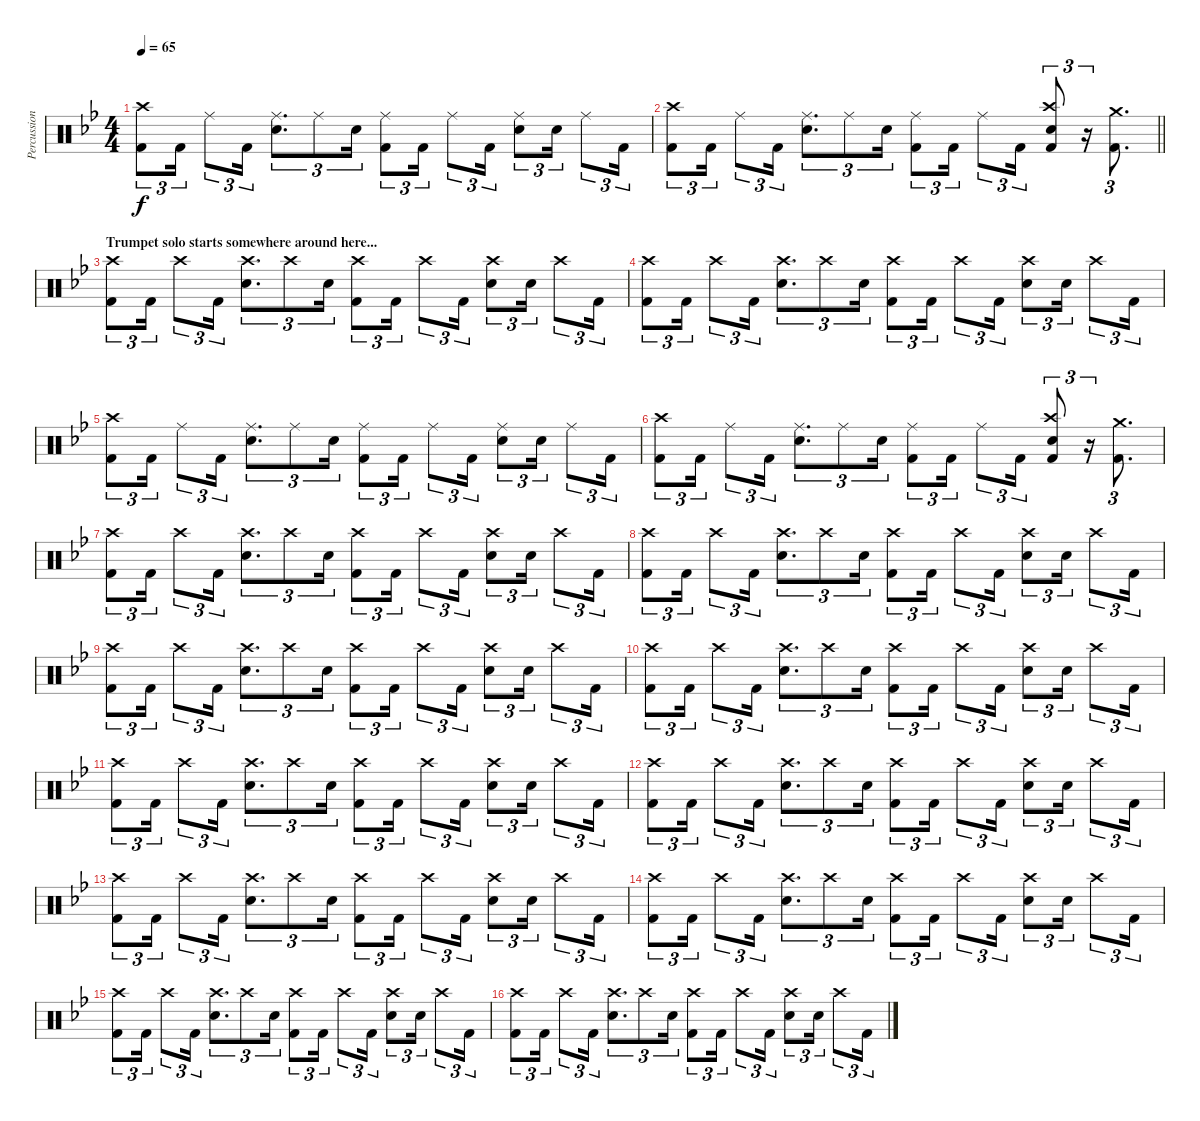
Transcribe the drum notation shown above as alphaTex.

\track ("Percussion" "Percussion") {instrument percussion}
\staff {score}
\articulation defaults
\ts (4 4)
\tempo 65
\clef neutral
\ks bb
("Kick (hit) 2" "Crash high (hit)").8{tu (3 2) dy f} "Kick (hit) 2".16{tu (3 2)} "Ride (middle)".8{tu (3 2)} "Kick (hit) 2".16{tu (3 2)} ("Snare (hit) 2" "Ride (middle)").8{d tu (3 2)} "Ride (middle)".8{tu (3 2)} "Snare (hit) 2".16{tu (3 2)} ("Kick (hit) 2" "Ride (middle)").8{tu (3 2)} "Kick (hit) 2".16{tu (3 2)} "Ride (middle)".8{tu (3 2)} "Kick (hit) 2".16{tu (3 2)} ("Ride (middle)" "Snare (hit) 2").8{tu (3 2)} "Snare (hit) 2".16{tu (3 2)} "Ride (middle)".8{tu (3 2)} "Kick (hit) 2".16{tu (3 2)} |
\barLineRight lightlight
("Kick (hit) 2" "Crash high (hit)").8{tu (3 2)} "Kick (hit) 2".16{tu (3 2)} "Ride (middle)".8{tu (3 2)} "Kick (hit) 2".16{tu (3 2)} ("Snare (hit) 2" "Ride (middle)").8{d tu (3 2)} "Ride (middle)".8{tu (3 2)} "Snare (hit) 2".16{tu (3 2)} ("Kick (hit) 2" "Ride (middle)").8{tu (3 2)} "Kick (hit) 2".16{tu (3 2)} "Ride (middle)".8{tu (3 2)} "Kick (hit) 2".16{tu (3 2)} ("Crash high (hit)" "Snare (hit) 2" "Kick (hit) 2").8{tu (3 2)} r.16{tu (3 2)} ("Crash medium (hit)" "Kick (hit) 2").8{d tu (3 2)} |
\section ("" "Trumpet solo starts somewhere around here...")
("Kick (hit) 2" "Crash high (hit)").8{tu (3 2)} "Kick (hit) 2".16{tu (3 2)} "Crash high (hit)".8{tu (3 2)} "Kick (hit) 2".16{tu (3 2)} ("Snare (hit) 2" "Crash high (hit)").8{d tu (3 2)} "Crash high (hit)".8{tu (3 2)} "Snare (hit) 2".16{tu (3 2)} ("Kick (hit) 2" "Crash high (hit)").8{tu (3 2)} "Kick (hit) 2".16{tu (3 2)} "Crash high (hit)".8{tu (3 2)} "Kick (hit) 2".16{tu (3 2)} ("Crash high (hit)" "Snare (hit) 2").8{tu (3 2)} "Snare (hit) 2".16{tu (3 2)} "Crash high (hit)".8{tu (3 2)} "Kick (hit) 2".16{tu (3 2)} |
("Kick (hit) 2" "Crash high (hit)").8{tu (3 2)} "Kick (hit) 2".16{tu (3 2)} "Crash high (hit)".8{tu (3 2)} "Kick (hit) 2".16{tu (3 2)} ("Snare (hit) 2" "Crash high (hit)").8{d tu (3 2)} "Crash high (hit)".8{tu (3 2)} "Snare (hit) 2".16{tu (3 2)} ("Kick (hit) 2" "Crash high (hit)").8{tu (3 2)} "Kick (hit) 2".16{tu (3 2)} "Crash high (hit)".8{tu (3 2)} "Kick (hit) 2".16{tu (3 2)} ("Crash high (hit)" "Snare (hit) 2").8{tu (3 2)} "Snare (hit) 2".16{tu (3 2)} "Crash high (hit)".8{tu (3 2)} "Kick (hit) 2".16{tu (3 2)} |
("Kick (hit) 2" "Crash high (hit)").8{tu (3 2)} "Kick (hit) 2".16{tu (3 2)} "Ride (middle)".8{tu (3 2)} "Kick (hit) 2".16{tu (3 2)} ("Snare (hit) 2" "Ride (middle)").8{d tu (3 2)} "Ride (middle)".8{tu (3 2)} "Snare (hit) 2".16{tu (3 2)} ("Kick (hit) 2" "Ride (middle)").8{tu (3 2)} "Kick (hit) 2".16{tu (3 2)} "Ride (middle)".8{tu (3 2)} "Kick (hit) 2".16{tu (3 2)} ("Ride (middle)" "Snare (hit) 2").8{tu (3 2)} "Snare (hit) 2".16{tu (3 2)} "Ride (middle)".8{tu (3 2)} "Kick (hit) 2".16{tu (3 2)} |
("Kick (hit) 2" "Crash high (hit)").8{tu (3 2)} "Kick (hit) 2".16{tu (3 2)} "Ride (middle)".8{tu (3 2)} "Kick (hit) 2".16{tu (3 2)} ("Snare (hit) 2" "Ride (middle)").8{d tu (3 2)} "Ride (middle)".8{tu (3 2)} "Snare (hit) 2".16{tu (3 2)} ("Kick (hit) 2" "Ride (middle)").8{tu (3 2)} "Kick (hit) 2".16{tu (3 2)} "Ride (middle)".8{tu (3 2)} "Kick (hit) 2".16{tu (3 2)} ("Crash high (hit)" "Snare (hit) 2" "Kick (hit) 2").8{tu (3 2)} r.16{tu (3 2)} ("Crash medium (hit)" "Kick (hit) 2").8{d tu (3 2)} |
("Kick (hit) 2" "Crash high (hit)").8{tu (3 2)} "Kick (hit) 2".16{tu (3 2)} "Crash high (hit)".8{tu (3 2)} "Kick (hit) 2".16{tu (3 2)} ("Snare (hit) 2" "Crash high (hit)").8{d tu (3 2)} "Crash high (hit)".8{tu (3 2)} "Snare (hit) 2".16{tu (3 2)} ("Kick (hit) 2" "Crash high (hit)").8{tu (3 2)} "Kick (hit) 2".16{tu (3 2)} "Crash high (hit)".8{tu (3 2)} "Kick (hit) 2".16{tu (3 2)} ("Crash high (hit)" "Snare (hit) 2").8{tu (3 2)} "Snare (hit) 2".16{tu (3 2)} "Crash high (hit)".8{tu (3 2)} "Kick (hit) 2".16{tu (3 2)} |
("Kick (hit) 2" "Crash high (hit)").8{tu (3 2)} "Kick (hit) 2".16{tu (3 2)} "Crash high (hit)".8{tu (3 2)} "Kick (hit) 2".16{tu (3 2)} ("Snare (hit) 2" "Crash high (hit)").8{d tu (3 2)} "Crash high (hit)".8{tu (3 2)} "Snare (hit) 2".16{tu (3 2)} ("Kick (hit) 2" "Crash high (hit)").8{tu (3 2)} "Kick (hit) 2".16{tu (3 2)} "Crash high (hit)".8{tu (3 2)} "Kick (hit) 2".16{tu (3 2)} ("Crash high (hit)" "Snare (hit) 2").8{tu (3 2)} "Snare (hit) 2".16{tu (3 2)} "Crash high (hit)".8{tu (3 2)} "Kick (hit) 2".16{tu (3 2)} |
("Kick (hit) 2" "Crash high (hit)").8{tu (3 2)} "Kick (hit) 2".16{tu (3 2)} "Crash high (hit)".8{tu (3 2)} "Kick (hit) 2".16{tu (3 2)} ("Snare (hit) 2" "Crash high (hit)").8{d tu (3 2)} "Crash high (hit)".8{tu (3 2)} "Snare (hit) 2".16{tu (3 2)} ("Kick (hit) 2" "Crash high (hit)").8{tu (3 2)} "Kick (hit) 2".16{tu (3 2)} "Crash high (hit)".8{tu (3 2)} "Kick (hit) 2".16{tu (3 2)} ("Crash high (hit)" "Snare (hit) 2").8{tu (3 2)} "Snare (hit) 2".16{tu (3 2)} "Crash high (hit)".8{tu (3 2)} "Kick (hit) 2".16{tu (3 2)} |
("Kick (hit) 2" "Crash high (hit)").8{tu (3 2)} "Kick (hit) 2".16{tu (3 2)} "Crash high (hit)".8{tu (3 2)} "Kick (hit) 2".16{tu (3 2)} ("Snare (hit) 2" "Crash high (hit)").8{d tu (3 2)} "Crash high (hit)".8{tu (3 2)} "Snare (hit) 2".16{tu (3 2)} ("Kick (hit) 2" "Crash high (hit)").8{tu (3 2)} "Kick (hit) 2".16{tu (3 2)} "Crash high (hit)".8{tu (3 2)} "Kick (hit) 2".16{tu (3 2)} ("Crash high (hit)" "Snare (hit) 2").8{tu (3 2)} "Snare (hit) 2".16{tu (3 2)} "Crash high (hit)".8{tu (3 2)} "Kick (hit) 2".16{tu (3 2)} |
("Kick (hit) 2" "Crash high (hit)").8{tu (3 2)} "Kick (hit) 2".16{tu (3 2)} "Crash high (hit)".8{tu (3 2)} "Kick (hit) 2".16{tu (3 2)} ("Snare (hit) 2" "Crash high (hit)").8{d tu (3 2)} "Crash high (hit)".8{tu (3 2)} "Snare (hit) 2".16{tu (3 2)} ("Kick (hit) 2" "Crash high (hit)").8{tu (3 2)} "Kick (hit) 2".16{tu (3 2)} "Crash high (hit)".8{tu (3 2)} "Kick (hit) 2".16{tu (3 2)} ("Crash high (hit)" "Snare (hit) 2").8{tu (3 2)} "Snare (hit) 2".16{tu (3 2)} "Crash high (hit)".8{tu (3 2)} "Kick (hit) 2".16{tu (3 2)} |
("Kick (hit) 2" "Crash high (hit)").8{tu (3 2)} "Kick (hit) 2".16{tu (3 2)} "Crash high (hit)".8{tu (3 2)} "Kick (hit) 2".16{tu (3 2)} ("Snare (hit) 2" "Crash high (hit)").8{d tu (3 2)} "Crash high (hit)".8{tu (3 2)} "Snare (hit) 2".16{tu (3 2)} ("Kick (hit) 2" "Crash high (hit)").8{tu (3 2)} "Kick (hit) 2".16{tu (3 2)} "Crash high (hit)".8{tu (3 2)} "Kick (hit) 2".16{tu (3 2)} ("Crash high (hit)" "Snare (hit) 2").8{tu (3 2)} "Snare (hit) 2".16{tu (3 2)} "Crash high (hit)".8{tu (3 2)} "Kick (hit) 2".16{tu (3 2)} |
("Kick (hit) 2" "Crash high (hit)").8{tu (3 2)} "Kick (hit) 2".16{tu (3 2)} "Crash high (hit)".8{tu (3 2)} "Kick (hit) 2".16{tu (3 2)} ("Snare (hit) 2" "Crash high (hit)").8{d tu (3 2)} "Crash high (hit)".8{tu (3 2)} "Snare (hit) 2".16{tu (3 2)} ("Kick (hit) 2" "Crash high (hit)").8{tu (3 2)} "Kick (hit) 2".16{tu (3 2)} "Crash high (hit)".8{tu (3 2)} "Kick (hit) 2".16{tu (3 2)} ("Crash high (hit)" "Snare (hit) 2").8{tu (3 2)} "Snare (hit) 2".16{tu (3 2)} "Crash high (hit)".8{tu (3 2)} "Kick (hit) 2".16{tu (3 2)} |
("Kick (hit) 2" "Crash high (hit)").8{tu (3 2)} "Kick (hit) 2".16{tu (3 2)} "Crash high (hit)".8{tu (3 2)} "Kick (hit) 2".16{tu (3 2)} ("Snare (hit) 2" "Crash high (hit)").8{d tu (3 2)} "Crash high (hit)".8{tu (3 2)} "Snare (hit) 2".16{tu (3 2)} ("Kick (hit) 2" "Crash high (hit)").8{tu (3 2)} "Kick (hit) 2".16{tu (3 2)} "Crash high (hit)".8{tu (3 2)} "Kick (hit) 2".16{tu (3 2)} ("Crash high (hit)" "Snare (hit) 2").8{tu (3 2)} "Snare (hit) 2".16{tu (3 2)} "Crash high (hit)".8{tu (3 2)} "Kick (hit) 2".16{tu (3 2)} |
("Kick (hit) 2" "Crash high (hit)").8{tu (3 2)} "Kick (hit) 2".16{tu (3 2)} "Crash high (hit)".8{tu (3 2)} "Kick (hit) 2".16{tu (3 2)} ("Snare (hit) 2" "Crash high (hit)").8{d tu (3 2)} "Crash high (hit)".8{tu (3 2)} "Snare (hit) 2".16{tu (3 2)} ("Kick (hit) 2" "Crash high (hit)").8{tu (3 2)} "Kick (hit) 2".16{tu (3 2)} "Crash high (hit)".8{tu (3 2)} "Kick (hit) 2".16{tu (3 2)} ("Crash high (hit)" "Snare (hit) 2").8{tu (3 2)} "Snare (hit) 2".16{tu (3 2)} "Crash high (hit)".8{tu (3 2)} "Kick (hit) 2".16{tu (3 2)} |
("Kick (hit) 2" "Crash high (hit)").8{tu (3 2)} "Kick (hit) 2".16{tu (3 2)} "Crash high (hit)".8{tu (3 2)} "Kick (hit) 2".16{tu (3 2)} ("Snare (hit) 2" "Crash high (hit)").8{d tu (3 2)} "Crash high (hit)".8{tu (3 2)} "Snare (hit) 2".16{tu (3 2)} ("Kick (hit) 2" "Crash high (hit)").8{tu (3 2)} "Kick (hit) 2".16{tu (3 2)} "Crash high (hit)".8{tu (3 2)} "Kick (hit) 2".16{tu (3 2)} ("Crash high (hit)" "Snare (hit) 2").8{tu (3 2)} "Snare (hit) 2".16{tu (3 2)} "Crash high (hit)".8{tu (3 2)} "Kick (hit) 2".16{tu (3 2)}
